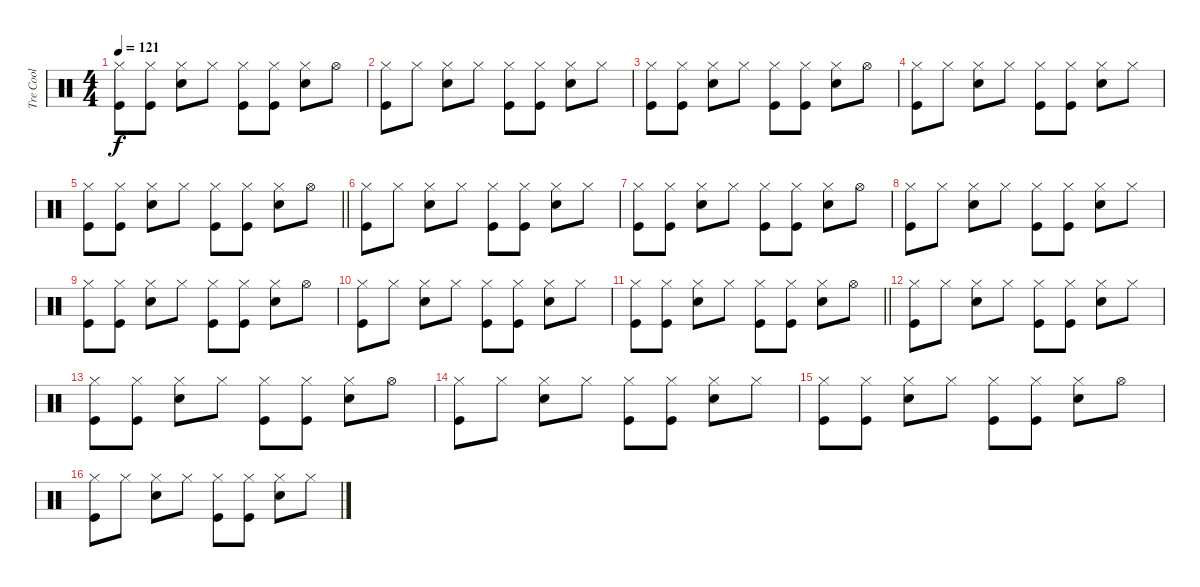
\track ("Tre Cool" "Tre Cool") {instrument percussion}
\staff {score}
\articulation defaults
\ts (4 4)
\tempo 121
\clef neutral
\ks c
("Hi-Hat (closed)" "Kick (hit)").8{dy f} ("Hi-Hat (closed)" "Kick (hit)").8 ("Hi-Hat (closed)" "Snare (hit) 2").8 "Hi-Hat (closed)".8 ("Hi-Hat (closed)" "Kick (hit)").8 ("Hi-Hat (closed)" "Kick (hit)").8 ("Hi-Hat (closed)" "Snare (hit) 2").8 "Hi-Hat (open)".8 |
("Hi-Hat (closed)" "Kick (hit)").8 "Hi-Hat (closed)".8 ("Hi-Hat (closed)" "Snare (hit) 2").8 "Hi-Hat (closed)".8 ("Hi-Hat (closed)" "Kick (hit)").8 ("Hi-Hat (closed)" "Kick (hit)").8 ("Hi-Hat (closed)" "Snare (hit) 2").8 "Hi-Hat (closed)".8 |
("Hi-Hat (closed)" "Kick (hit)").8 ("Hi-Hat (closed)" "Kick (hit)").8 ("Hi-Hat (closed)" "Snare (hit) 2").8 "Hi-Hat (closed)".8 ("Hi-Hat (closed)" "Kick (hit)").8 ("Hi-Hat (closed)" "Kick (hit)").8 ("Hi-Hat (closed)" "Snare (hit) 2").8 "Hi-Hat (open)".8 |
("Hi-Hat (closed)" "Kick (hit)").8 "Hi-Hat (closed)".8 ("Hi-Hat (closed)" "Snare (hit) 2").8 "Hi-Hat (closed)".8 ("Hi-Hat (closed)" "Kick (hit)").8 ("Hi-Hat (closed)" "Kick (hit)").8 ("Hi-Hat (closed)" "Snare (hit) 2").8 "Hi-Hat (closed)".8 |
\barLineRight lightlight
("Hi-Hat (closed)" "Kick (hit)").8 ("Hi-Hat (closed)" "Kick (hit)").8 ("Hi-Hat (closed)" "Snare (hit) 2").8 "Hi-Hat (closed)".8 ("Hi-Hat (closed)" "Kick (hit)").8 ("Hi-Hat (closed)" "Kick (hit)").8 ("Hi-Hat (closed)" "Snare (hit) 2").8 "Hi-Hat (open)".8 |
("Hi-Hat (closed)" "Kick (hit)").8 "Hi-Hat (closed)".8 ("Hi-Hat (closed)" "Snare (hit) 2").8 "Hi-Hat (closed)".8 ("Hi-Hat (closed)" "Kick (hit)").8 ("Hi-Hat (closed)" "Kick (hit)").8 ("Hi-Hat (closed)" "Snare (hit) 2").8 "Hi-Hat (closed)".8 |
("Hi-Hat (closed)" "Kick (hit)").8 ("Hi-Hat (closed)" "Kick (hit)").8 ("Hi-Hat (closed)" "Snare (hit) 2").8 "Hi-Hat (closed)".8 ("Hi-Hat (closed)" "Kick (hit)").8 ("Hi-Hat (closed)" "Kick (hit)").8 ("Hi-Hat (closed)" "Snare (hit) 2").8 "Hi-Hat (open)".8 |
("Hi-Hat (closed)" "Kick (hit)").8 "Hi-Hat (closed)".8 ("Hi-Hat (closed)" "Snare (hit) 2").8 "Hi-Hat (closed)".8 ("Hi-Hat (closed)" "Kick (hit)").8 ("Hi-Hat (closed)" "Kick (hit)").8 ("Hi-Hat (closed)" "Snare (hit) 2").8 "Hi-Hat (closed)".8 |
("Hi-Hat (closed)" "Kick (hit)").8 ("Hi-Hat (closed)" "Kick (hit)").8 ("Hi-Hat (closed)" "Snare (hit) 2").8 "Hi-Hat (closed)".8 ("Hi-Hat (closed)" "Kick (hit)").8 ("Hi-Hat (closed)" "Kick (hit)").8 ("Hi-Hat (closed)" "Snare (hit) 2").8 "Hi-Hat (open)".8 |
("Hi-Hat (closed)" "Kick (hit)").8 "Hi-Hat (closed)".8 ("Hi-Hat (closed)" "Snare (hit) 2").8 "Hi-Hat (closed)".8 ("Hi-Hat (closed)" "Kick (hit)").8 ("Hi-Hat (closed)" "Kick (hit)").8 ("Hi-Hat (closed)" "Snare (hit) 2").8 "Hi-Hat (closed)".8 |
\barLineRight lightlight
("Hi-Hat (closed)" "Kick (hit)").8 ("Hi-Hat (closed)" "Kick (hit)").8 ("Hi-Hat (closed)" "Snare (hit) 2").8 "Hi-Hat (closed)".8 ("Hi-Hat (closed)" "Kick (hit)").8 ("Hi-Hat (closed)" "Kick (hit)").8 ("Hi-Hat (closed)" "Snare (hit) 2").8 "Hi-Hat (open)".8 |
("Hi-Hat (closed)" "Kick (hit)").8 "Hi-Hat (closed)".8 ("Hi-Hat (closed)" "Snare (hit) 2").8 "Hi-Hat (closed)".8 ("Hi-Hat (closed)" "Kick (hit)").8 ("Hi-Hat (closed)" "Kick (hit)").8 ("Hi-Hat (closed)" "Snare (hit) 2").8 "Hi-Hat (closed)".8 |
("Hi-Hat (closed)" "Kick (hit)").8 ("Hi-Hat (closed)" "Kick (hit)").8 ("Hi-Hat (closed)" "Snare (hit) 2").8 "Hi-Hat (closed)".8 ("Hi-Hat (closed)" "Kick (hit)").8 ("Hi-Hat (closed)" "Kick (hit)").8 ("Hi-Hat (closed)" "Snare (hit) 2").8 "Hi-Hat (open)".8 |
("Hi-Hat (closed)" "Kick (hit)").8 "Hi-Hat (closed)".8 ("Hi-Hat (closed)" "Snare (hit) 2").8 "Hi-Hat (closed)".8 ("Hi-Hat (closed)" "Kick (hit)").8 ("Hi-Hat (closed)" "Kick (hit)").8 ("Hi-Hat (closed)" "Snare (hit) 2").8 "Hi-Hat (closed)".8 |
("Hi-Hat (closed)" "Kick (hit)").8 ("Hi-Hat (closed)" "Kick (hit)").8 ("Hi-Hat (closed)" "Snare (hit) 2").8 "Hi-Hat (closed)".8 ("Hi-Hat (closed)" "Kick (hit)").8 ("Hi-Hat (closed)" "Kick (hit)").8 ("Hi-Hat (closed)" "Snare (hit) 2").8 "Hi-Hat (open)".8 |
("Hi-Hat (closed)" "Kick (hit)").8 "Hi-Hat (closed)".8 ("Hi-Hat (closed)" "Snare (hit) 2").8 "Hi-Hat (closed)".8 ("Hi-Hat (closed)" "Kick (hit)").8 ("Hi-Hat (closed)" "Kick (hit)").8 ("Hi-Hat (closed)" "Snare (hit) 2").8 "Hi-Hat (closed)".8
